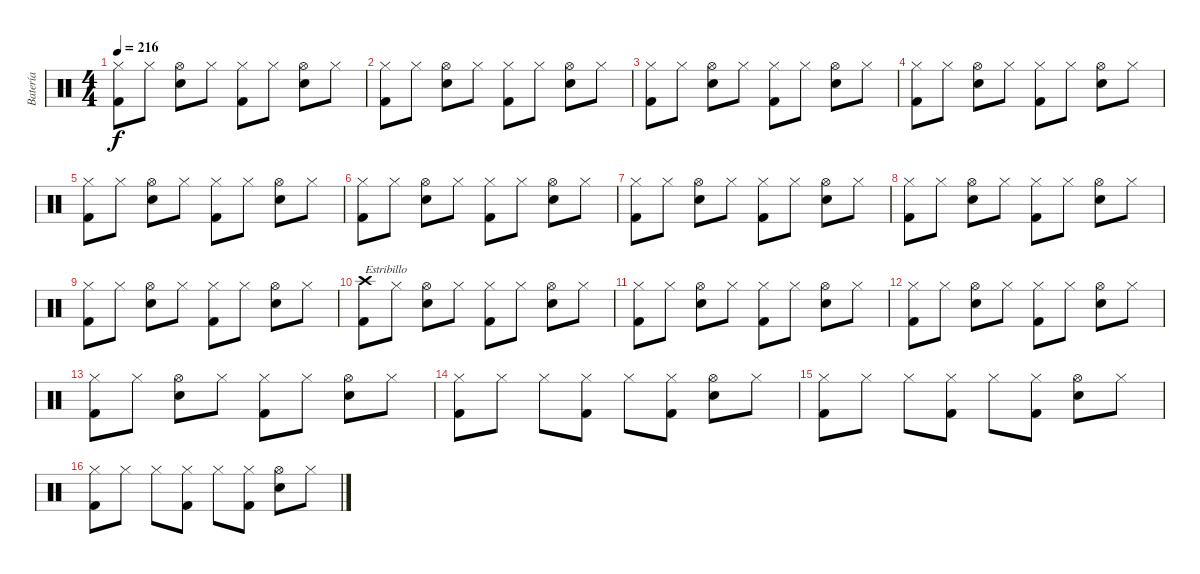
\track ("Batería" "Batería") {instrument percussion}
\staff {score}
\articulation defaults
\ts (4 4)
\tempo 216
\clef neutral
\ks c
("Kick (hit) 2" "Hi-Hat (closed)").8{dy f} "Hi-Hat (closed)".8 ("Electric Snare (hit)" "Hi-Hat (open)").8 "Hi-Hat (closed)".8 ("Kick (hit) 2" "Hi-Hat (closed)").8 "Hi-Hat (closed)".8 ("Electric Snare (hit)" "Hi-Hat (open)").8 "Hi-Hat (closed)".8 |
("Kick (hit) 2" "Hi-Hat (closed)").8 "Hi-Hat (closed)".8 ("Electric Snare (hit)" "Hi-Hat (open)").8 "Hi-Hat (closed)".8 ("Kick (hit) 2" "Hi-Hat (closed)").8 "Hi-Hat (closed)".8 ("Electric Snare (hit)" "Hi-Hat (open)").8 "Hi-Hat (closed)".8 |
("Kick (hit) 2" "Hi-Hat (closed)").8 "Hi-Hat (closed)".8 ("Electric Snare (hit)" "Hi-Hat (open)").8 "Hi-Hat (closed)".8 ("Kick (hit) 2" "Hi-Hat (closed)").8 "Hi-Hat (closed)".8 ("Electric Snare (hit)" "Hi-Hat (open)").8 "Hi-Hat (closed)".8 |
("Kick (hit) 2" "Hi-Hat (closed)").8 "Hi-Hat (closed)".8 ("Electric Snare (hit)" "Hi-Hat (open)").8 "Hi-Hat (closed)".8 ("Kick (hit) 2" "Hi-Hat (closed)").8 "Hi-Hat (closed)".8 ("Electric Snare (hit)" "Hi-Hat (open)").8 "Hi-Hat (closed)".8 |
("Kick (hit) 2" "Hi-Hat (closed)").8 "Hi-Hat (closed)".8 ("Electric Snare (hit)" "Hi-Hat (open)").8 "Hi-Hat (closed)".8 ("Kick (hit) 2" "Hi-Hat (closed)").8 "Hi-Hat (closed)".8 ("Electric Snare (hit)" "Hi-Hat (open)").8 "Hi-Hat (closed)".8 |
("Kick (hit) 2" "Hi-Hat (closed)").8 "Hi-Hat (closed)".8 ("Electric Snare (hit)" "Hi-Hat (open)").8 "Hi-Hat (closed)".8 ("Kick (hit) 2" "Hi-Hat (closed)").8 "Hi-Hat (closed)".8 ("Electric Snare (hit)" "Hi-Hat (open)").8 "Hi-Hat (closed)".8 |
("Kick (hit) 2" "Hi-Hat (closed)").8 "Hi-Hat (closed)".8 ("Electric Snare (hit)" "Hi-Hat (open)").8 "Hi-Hat (closed)".8 ("Kick (hit) 2" "Hi-Hat (closed)").8 "Hi-Hat (closed)".8 ("Electric Snare (hit)" "Hi-Hat (open)").8 "Hi-Hat (closed)".8 |
("Kick (hit) 2" "Hi-Hat (closed)").8 "Hi-Hat (closed)".8 ("Electric Snare (hit)" "Hi-Hat (open)").8 "Hi-Hat (closed)".8 ("Kick (hit) 2" "Hi-Hat (closed)").8 "Hi-Hat (closed)".8 ("Electric Snare (hit)" "Hi-Hat (open)").8 "Hi-Hat (closed)".8 |
("Kick (hit) 2" "Hi-Hat (closed)").8 "Hi-Hat (closed)".8 ("Electric Snare (hit)" "Hi-Hat (open)").8 "Hi-Hat (closed)".8 ("Kick (hit) 2" "Hi-Hat (closed)").8 "Hi-Hat (closed)".8 ("Electric Snare (hit)" "Hi-Hat (open)").8 "Hi-Hat (closed)".8 |
("Kick (hit) 2" "Crash high (hit)").8{txt "Estribillo"} "Hi-Hat (closed)".8 ("Electric Snare (hit)" "Hi-Hat (open)").8 "Hi-Hat (closed)".8 ("Kick (hit) 2" "Hi-Hat (closed)").8 "Hi-Hat (closed)".8 ("Electric Snare (hit)" "Hi-Hat (open)").8 "Hi-Hat (closed)".8 |
("Kick (hit) 2" "Hi-Hat (closed)").8 "Hi-Hat (closed)".8 ("Electric Snare (hit)" "Hi-Hat (open)").8 "Hi-Hat (closed)".8 ("Kick (hit) 2" "Hi-Hat (closed)").8 "Hi-Hat (closed)".8 ("Electric Snare (hit)" "Hi-Hat (open)").8 "Hi-Hat (closed)".8 |
("Kick (hit) 2" "Hi-Hat (closed)").8 "Hi-Hat (closed)".8 ("Electric Snare (hit)" "Hi-Hat (open)").8 "Hi-Hat (closed)".8 ("Kick (hit) 2" "Hi-Hat (closed)").8 "Hi-Hat (closed)".8 ("Electric Snare (hit)" "Hi-Hat (open)").8 "Hi-Hat (closed)".8 |
("Kick (hit) 2" "Hi-Hat (closed)").8 "Hi-Hat (closed)".8 ("Electric Snare (hit)" "Hi-Hat (open)").8 "Hi-Hat (closed)".8 ("Kick (hit) 2" "Hi-Hat (closed)").8 "Hi-Hat (closed)".8 ("Electric Snare (hit)" "Hi-Hat (open)").8 "Hi-Hat (closed)".8 |
("Kick (hit) 2" "Hi-Hat (closed)").8 "Hi-Hat (closed)".8 "Hi-Hat (closed)".8 ("Kick (hit) 2" "Hi-Hat (closed)").8 "Hi-Hat (closed)".8 ("Kick (hit) 2" "Hi-Hat (closed)").8 ("Electric Snare (hit)" "Hi-Hat (open)").8 "Hi-Hat (closed)".8 |
("Kick (hit) 2" "Hi-Hat (closed)").8 "Hi-Hat (closed)".8 "Hi-Hat (closed)".8 ("Kick (hit) 2" "Hi-Hat (closed)").8 "Hi-Hat (closed)".8 ("Kick (hit) 2" "Hi-Hat (closed)").8 ("Electric Snare (hit)" "Hi-Hat (open)").8 "Hi-Hat (closed)".8 |
("Kick (hit) 2" "Hi-Hat (closed)").8 "Hi-Hat (closed)".8 "Hi-Hat (closed)".8 ("Kick (hit) 2" "Hi-Hat (closed)").8 "Hi-Hat (closed)".8 ("Kick (hit) 2" "Hi-Hat (closed)").8 ("Electric Snare (hit)" "Hi-Hat (open)").8 "Hi-Hat (closed)".8
